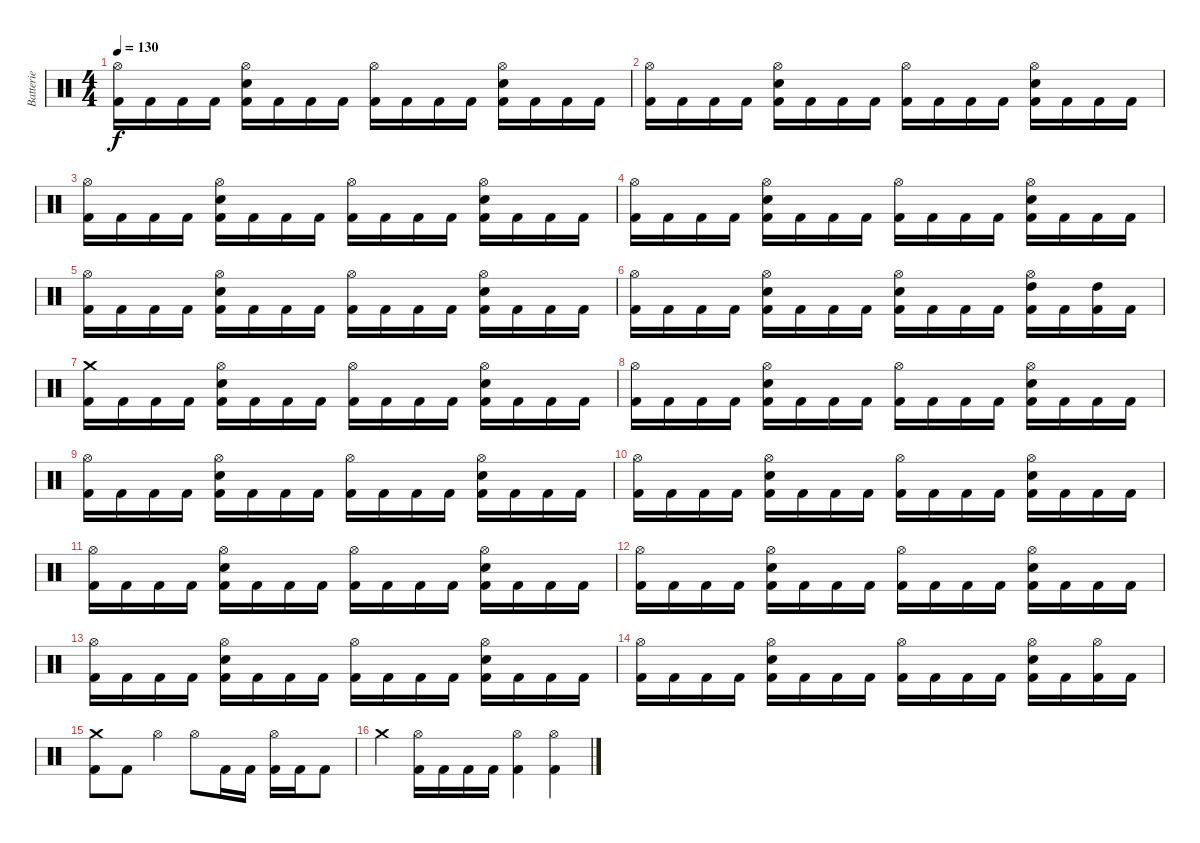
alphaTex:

\track ("Batterie" "Batterie") {instrument percussion}
\staff {score}
\articulation defaults
\ts (4 4)
\tempo 130
\clef neutral
\ks c
("Hi-Hat (open)" "Kick (hit) 2").16{dy f} "Kick (hit) 2".16 "Kick (hit) 2".16 "Kick (hit) 2".16 ("Hi-Hat (open)" "Snare (hit) 2" "Kick (hit) 2").16 "Kick (hit) 2".16 "Kick (hit) 2".16 "Kick (hit) 2".16 ("Hi-Hat (open)" "Kick (hit) 2").16 "Kick (hit) 2".16 "Kick (hit) 2".16 "Kick (hit) 2".16 ("Hi-Hat (open)" "Snare (hit) 2" "Kick (hit) 2").16 "Kick (hit) 2".16 "Kick (hit) 2".16 "Kick (hit) 2".16 |
("Hi-Hat (open)" "Kick (hit) 2").16 "Kick (hit) 2".16 "Kick (hit) 2".16 "Kick (hit) 2".16 ("Hi-Hat (open)" "Snare (hit) 2" "Kick (hit) 2").16 "Kick (hit) 2".16 "Kick (hit) 2".16 "Kick (hit) 2".16 ("Hi-Hat (open)" "Kick (hit) 2").16 "Kick (hit) 2".16 "Kick (hit) 2".16 "Kick (hit) 2".16 ("Hi-Hat (open)" "Snare (hit) 2" "Kick (hit) 2").16 "Kick (hit) 2".16 "Kick (hit) 2".16 "Kick (hit) 2".16 |
("Hi-Hat (open)" "Kick (hit) 2").16 "Kick (hit) 2".16 "Kick (hit) 2".16 "Kick (hit) 2".16 ("Hi-Hat (open)" "Snare (hit) 2" "Kick (hit) 2").16 "Kick (hit) 2".16 "Kick (hit) 2".16 "Kick (hit) 2".16 ("Hi-Hat (open)" "Kick (hit) 2").16 "Kick (hit) 2".16 "Kick (hit) 2".16 "Kick (hit) 2".16 ("Hi-Hat (open)" "Snare (hit) 2" "Kick (hit) 2").16 "Kick (hit) 2".16 "Kick (hit) 2".16 "Kick (hit) 2".16 |
("Hi-Hat (open)" "Kick (hit) 2").16 "Kick (hit) 2".16 "Kick (hit) 2".16 "Kick (hit) 2".16 ("Hi-Hat (open)" "Snare (hit) 2" "Kick (hit) 2").16 "Kick (hit) 2".16 "Kick (hit) 2".16 "Kick (hit) 2".16 ("Hi-Hat (open)" "Kick (hit) 2").16 "Kick (hit) 2".16 "Kick (hit) 2".16 "Kick (hit) 2".16 ("Hi-Hat (open)" "Snare (hit) 2" "Kick (hit) 2").16 "Kick (hit) 2".16 "Kick (hit) 2".16 "Kick (hit) 2".16 |
("Hi-Hat (open)" "Kick (hit) 2").16 "Kick (hit) 2".16 "Kick (hit) 2".16 "Kick (hit) 2".16 ("Hi-Hat (open)" "Snare (hit) 2" "Kick (hit) 2").16 "Kick (hit) 2".16 "Kick (hit) 2".16 "Kick (hit) 2".16 ("Hi-Hat (open)" "Kick (hit) 2").16 "Kick (hit) 2".16 "Kick (hit) 2".16 "Kick (hit) 2".16 ("Hi-Hat (open)" "Snare (hit) 2" "Kick (hit) 2").16 "Kick (hit) 2".16 "Kick (hit) 2".16 "Kick (hit) 2".16 |
("Hi-Hat (open)" "Kick (hit) 2").16 "Kick (hit) 2".16 "Kick (hit) 2".16 "Kick (hit) 2".16 ("Hi-Hat (open)" "Snare (hit) 2" "Kick (hit) 2").16 "Kick (hit) 2".16 "Kick (hit) 2".16 "Kick (hit) 2".16 ("Hi-Hat (open)" "Snare (hit) 2" "Kick (hit) 2").16 "Kick (hit) 2".16 "Kick (hit) 2".16 "Kick (hit) 2".16 ("Hi-Hat (open)" "High Tom (hit)" "Kick (hit) 2").16 "Kick (hit) 2".16 ("High Tom (hit)" "Kick (hit) 2").16 "Kick (hit) 2".16 |
("Crash medium (hit)" "Kick (hit) 2").16 "Kick (hit) 2".16 "Kick (hit) 2".16 "Kick (hit) 2".16 ("Hi-Hat (open)" "Snare (hit) 2" "Kick (hit) 2").16 "Kick (hit) 2".16 "Kick (hit) 2".16 "Kick (hit) 2".16 ("Hi-Hat (open)" "Kick (hit) 2").16 "Kick (hit) 2".16 "Kick (hit) 2".16 "Kick (hit) 2".16 ("Hi-Hat (open)" "Snare (hit) 2" "Kick (hit) 2").16 "Kick (hit) 2".16 "Kick (hit) 2".16 "Kick (hit) 2".16 |
("Hi-Hat (open)" "Kick (hit) 2").16 "Kick (hit) 2".16 "Kick (hit) 2".16 "Kick (hit) 2".16 ("Hi-Hat (open)" "Snare (hit) 2" "Kick (hit) 2").16 "Kick (hit) 2".16 "Kick (hit) 2".16 "Kick (hit) 2".16 ("Hi-Hat (open)" "Kick (hit) 2").16 "Kick (hit) 2".16 "Kick (hit) 2".16 "Kick (hit) 2".16 ("Hi-Hat (open)" "Snare (hit) 2" "Kick (hit) 2").16 "Kick (hit) 2".16 "Kick (hit) 2".16 "Kick (hit) 2".16 |
("Hi-Hat (open)" "Kick (hit) 2").16 "Kick (hit) 2".16 "Kick (hit) 2".16 "Kick (hit) 2".16 ("Hi-Hat (open)" "Snare (hit) 2" "Kick (hit) 2").16 "Kick (hit) 2".16 "Kick (hit) 2".16 "Kick (hit) 2".16 ("Hi-Hat (open)" "Kick (hit) 2").16 "Kick (hit) 2".16 "Kick (hit) 2".16 "Kick (hit) 2".16 ("Hi-Hat (open)" "Snare (hit) 2" "Kick (hit) 2").16 "Kick (hit) 2".16 "Kick (hit) 2".16 "Kick (hit) 2".16 |
("Hi-Hat (open)" "Kick (hit) 2").16 "Kick (hit) 2".16 "Kick (hit) 2".16 "Kick (hit) 2".16 ("Hi-Hat (open)" "Snare (hit) 2" "Kick (hit) 2").16 "Kick (hit) 2".16 "Kick (hit) 2".16 "Kick (hit) 2".16 ("Hi-Hat (open)" "Kick (hit) 2").16 "Kick (hit) 2".16 "Kick (hit) 2".16 "Kick (hit) 2".16 ("Hi-Hat (open)" "Snare (hit) 2" "Kick (hit) 2").16 "Kick (hit) 2".16 "Kick (hit) 2".16 "Kick (hit) 2".16 |
("Hi-Hat (open)" "Kick (hit) 2").16 "Kick (hit) 2".16 "Kick (hit) 2".16 "Kick (hit) 2".16 ("Hi-Hat (open)" "Snare (hit) 2" "Kick (hit) 2").16 "Kick (hit) 2".16 "Kick (hit) 2".16 "Kick (hit) 2".16 ("Hi-Hat (open)" "Kick (hit) 2").16 "Kick (hit) 2".16 "Kick (hit) 2".16 "Kick (hit) 2".16 ("Hi-Hat (open)" "Snare (hit) 2" "Kick (hit) 2").16 "Kick (hit) 2".16 "Kick (hit) 2".16 "Kick (hit) 2".16 |
("Hi-Hat (open)" "Kick (hit) 2").16 "Kick (hit) 2".16 "Kick (hit) 2".16 "Kick (hit) 2".16 ("Hi-Hat (open)" "Snare (hit) 2" "Kick (hit) 2").16 "Kick (hit) 2".16 "Kick (hit) 2".16 "Kick (hit) 2".16 ("Hi-Hat (open)" "Kick (hit) 2").16 "Kick (hit) 2".16 "Kick (hit) 2".16 "Kick (hit) 2".16 ("Hi-Hat (open)" "Snare (hit) 2" "Kick (hit) 2").16 "Kick (hit) 2".16 "Kick (hit) 2".16 "Kick (hit) 2".16 |
("Hi-Hat (open)" "Kick (hit) 2").16 "Kick (hit) 2".16 "Kick (hit) 2".16 "Kick (hit) 2".16 ("Hi-Hat (open)" "Snare (hit) 2" "Kick (hit) 2").16 "Kick (hit) 2".16 "Kick (hit) 2".16 "Kick (hit) 2".16 ("Hi-Hat (open)" "Kick (hit) 2").16 "Kick (hit) 2".16 "Kick (hit) 2".16 "Kick (hit) 2".16 ("Hi-Hat (open)" "Snare (hit) 2" "Kick (hit) 2").16 "Kick (hit) 2".16 "Kick (hit) 2".16 "Kick (hit) 2".16 |
("Hi-Hat (open)" "Kick (hit) 2").16 "Kick (hit) 2".16 "Kick (hit) 2".16 "Kick (hit) 2".16 ("Hi-Hat (open)" "Snare (hit) 2" "Kick (hit) 2").16 "Kick (hit) 2".16 "Kick (hit) 2".16 "Kick (hit) 2".16 ("Hi-Hat (open)" "Kick (hit) 2").16 "Kick (hit) 2".16 "Kick (hit) 2".16 "Kick (hit) 2".16 ("Hi-Hat (open)" "Snare (hit) 2" "Kick (hit) 2").16 "Kick (hit) 2".16 ("Hi-Hat (open)" "Kick (hit) 2").16 "Kick (hit) 2".16 |
("Crash medium (hit)" "Kick (hit) 2").8 "Kick (hit) 2".8 "Hi-Hat (open)".4 "Hi-Hat (open)".8 "Kick (hit) 2".16 "Kick (hit) 2".16 ("Hi-Hat (open)" "Kick (hit) 2").16 "Kick (hit) 2".16 "Kick (hit) 2".8 |
"Crash medium (hit)".4 ("Hi-Hat (open)" "Kick (hit) 2").16 "Kick (hit) 2".16 "Kick (hit) 2".16 "Kick (hit) 2".16 ("Hi-Hat (open)" "Kick (hit) 2").4 ("Hi-Hat (open)" "Kick (hit) 2").4
